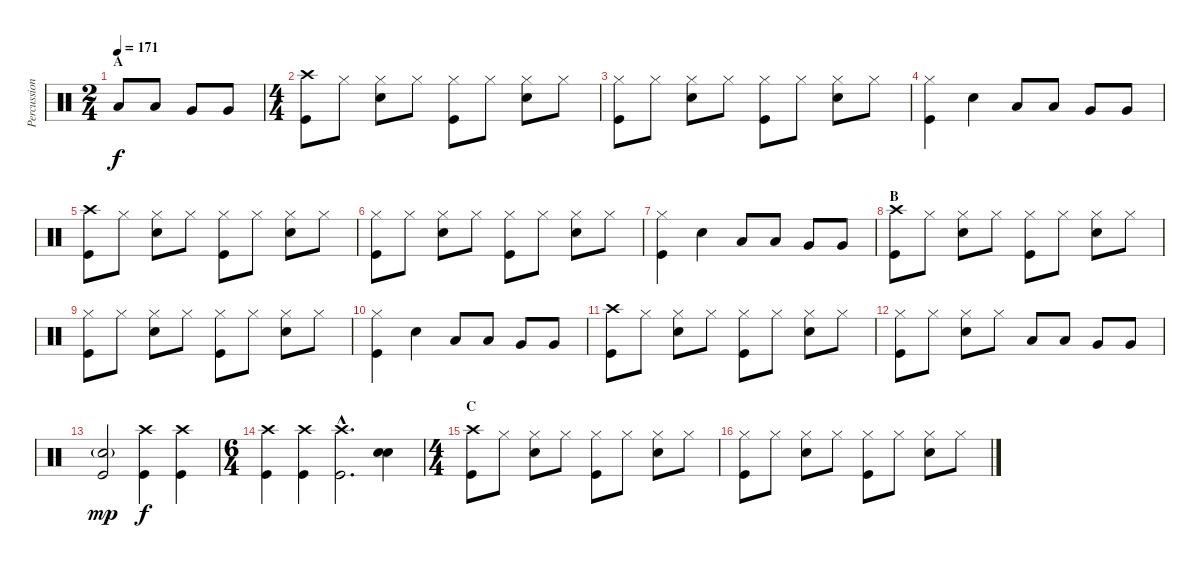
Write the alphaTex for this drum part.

\track ("Percussions" "Percussion") {instrument percussion}
\staff {score}
\articulation defaults
\ts (2 4)
\section ("" "A")
\tempo 171
\clef neutral
\ks c "Low Tom (hit)".8{dy f} "Low Tom (hit)".8 "Very Low Tom (hit)".8 "Very Low Tom (hit)".8
|
\ts (4 4)
("Crash high (hit)" "Kick (hit)").8 "Hi-Hat (closed)".8 ("Hi-Hat (closed)" "Electric Snare (hit)").8 "Hi-Hat (closed)".8 ("Hi-Hat (closed)" "Kick (hit)").8 "Hi-Hat (closed)".8 ("Hi-Hat (closed)" "Electric Snare (hit)").8 "Hi-Hat (closed)".8 |
("Hi-Hat (closed)" "Kick (hit)").8 "Hi-Hat (closed)".8 ("Hi-Hat (closed)" "Electric Snare (hit)").8 "Hi-Hat (closed)".8 ("Hi-Hat (closed)" "Kick (hit)").8 "Hi-Hat (closed)".8 ("Hi-Hat (closed)" "Electric Snare (hit)").8 "Hi-Hat (closed)".8 |
("Hi-Hat (closed)" "Kick (hit)").4 "Electric Snare (hit)".4 "Low Tom (hit)".8 "Low Tom (hit)".8 "Very Low Tom (hit)".8 "Very Low Tom (hit)".8 |
("Crash high (hit)" "Kick (hit)").8 "Hi-Hat (closed)".8 ("Hi-Hat (closed)" "Electric Snare (hit)").8 "Hi-Hat (closed)".8 ("Hi-Hat (closed)" "Kick (hit)").8 "Hi-Hat (closed)".8 ("Hi-Hat (closed)" "Electric Snare (hit)").8 "Hi-Hat (closed)".8 |
("Hi-Hat (closed)" "Kick (hit)").8 "Hi-Hat (closed)".8 ("Hi-Hat (closed)" "Electric Snare (hit)").8 "Hi-Hat (closed)".8 ("Hi-Hat (closed)" "Kick (hit)").8 "Hi-Hat (closed)".8 ("Hi-Hat (closed)" "Electric Snare (hit)").8 "Hi-Hat (closed)".8 |
("Hi-Hat (closed)" "Kick (hit)").4 "Electric Snare (hit)".4 "Low Tom (hit)".8 "Low Tom (hit)".8 "Very Low Tom (hit)".8 "Very Low Tom (hit)".8 |
\section ("" "B")
("Crash high (hit)" "Kick (hit)").8 "Hi-Hat (closed)".8 ("Hi-Hat (closed)" "Electric Snare (hit)").8 "Hi-Hat (closed)".8 ("Hi-Hat (closed)" "Kick (hit)").8 "Hi-Hat (closed)".8 ("Hi-Hat (closed)" "Electric Snare (hit)").8 "Hi-Hat (closed)".8 |
("Hi-Hat (closed)" "Kick (hit)").8 "Hi-Hat (closed)".8 ("Hi-Hat (closed)" "Electric Snare (hit)").8 "Hi-Hat (closed)".8 ("Hi-Hat (closed)" "Kick (hit)").8 "Hi-Hat (closed)".8 ("Hi-Hat (closed)" "Electric Snare (hit)").8 "Hi-Hat (closed)".8 |
("Hi-Hat (closed)" "Kick (hit)").4 "Electric Snare (hit)".4 "Low Tom (hit)".8 "Low Tom (hit)".8 "Very Low Tom (hit)".8 "Very Low Tom (hit)".8 |
("Crash high (hit)" "Kick (hit)").8 "Hi-Hat (closed)".8 ("Hi-Hat (closed)" "Electric Snare (hit)").8 "Hi-Hat (closed)".8 ("Hi-Hat (closed)" "Kick (hit)").8 "Hi-Hat (closed)".8 ("Hi-Hat (closed)" "Electric Snare (hit)").8 "Hi-Hat (closed)".8 |
("Hi-Hat (closed)" "Kick (hit)").8 "Hi-Hat (closed)".8 ("Hi-Hat (closed)" "Electric Snare (hit)").8 "Hi-Hat (closed)".8 "Low Tom (hit)".8 "Low Tom (hit)".8 "Very Low Tom (hit)".8 "Very Low Tom (hit)".8 |
("Electric Snare (hit)"{g} "Kick (hit)").2{dy mp} ("Crash high (hit)" "Kick (hit)").4{dy f} ("Crash high (hit)" "Kick (hit)").4 |
\ts (6 4)
("Crash high (hit)" "Kick (hit)").4 ("Crash high (hit)" "Kick (hit)").4 ("Crash high (hit)"{hac} "Kick (hit)"{hac}).2{d} ("Electric Snare (hit)" "Electric Snare (hit)").4{bd 120} |
\ts (4 4)
\section ("" "C")
("Crash high (hit)" "Kick (hit)").8 "Hi-Hat (closed)".8 ("Hi-Hat (closed)" "Electric Snare (hit)").8 "Hi-Hat (closed)".8 ("Hi-Hat (closed)" "Kick (hit)").8 "Hi-Hat (closed)".8 ("Hi-Hat (closed)" "Electric Snare (hit)").8 "Hi-Hat (closed)".8 |
("Hi-Hat (closed)" "Kick (hit)").8 "Hi-Hat (closed)".8 ("Hi-Hat (closed)" "Electric Snare (hit)").8 "Hi-Hat (closed)".8 ("Hi-Hat (closed)" "Kick (hit)").8 "Hi-Hat (closed)".8 ("Hi-Hat (closed)" "Electric Snare (hit)").8 "Hi-Hat (closed)".8
